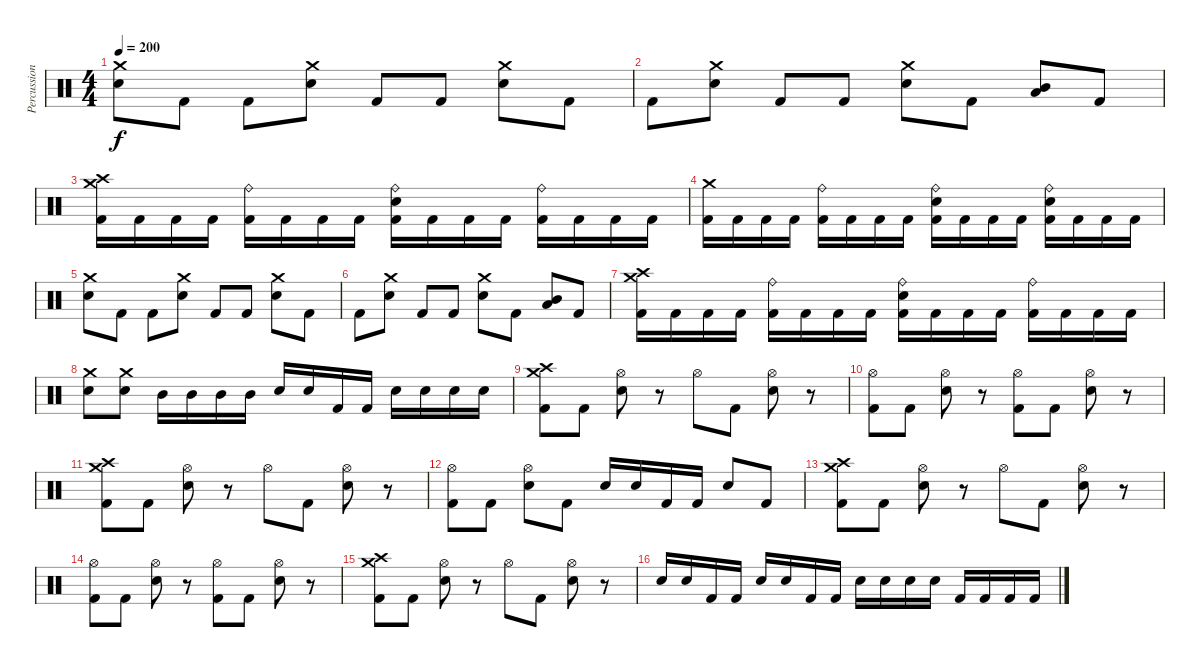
\track ("Percussion" "Percussion") {instrument percussion}
\staff {score}
\articulation defaults
\ts (4 4)
\tempo 200
\clef neutral
\ks c
("Crash medium (hit)" "Snare (hit) 2").8{dy f} "Kick (hit) 2".8 "Kick (hit) 2".8 ("Crash medium (hit)" "Snare (hit) 2").8 "Kick (hit) 2".8 "Kick (hit) 2".8 ("Crash medium (hit)" "Snare (hit) 2").8 "Kick (hit) 2".8 |
"Kick (hit) 2".8 ("Crash medium (hit)" "Snare (hit) 2").8 "Kick (hit) 2".8 "Kick (hit) 2".8 ("Crash medium (hit)" "Snare (hit) 2").8 "Kick (hit) 2".8 ("Low Tom (hit)" "Mid Tom (hit)").8 "Kick (hit) 2".8 |
("Crash high (hit)" "Crash medium (hit)" "Kick (hit) 2").16 "Kick (hit) 2".16 "Kick (hit) 2".16 "Kick (hit) 2".16 ("Ride (bell)" "Kick (hit) 2").16 "Kick (hit) 2".16 "Kick (hit) 2".16 "Kick (hit) 2".16 ("Ride (bell)" "Snare (hit) 2" "Kick (hit) 2").16 "Kick (hit) 2".16 "Kick (hit) 2".16 "Kick (hit) 2".16 ("Ride (bell)" "Kick (hit) 2").16 "Kick (hit) 2".16 "Kick (hit) 2".16 "Kick (hit) 2".16 |
("Crash medium (hit)" "Kick (hit) 2").16 "Kick (hit) 2".16 "Kick (hit) 2".16 "Kick (hit) 2".16 ("Ride (bell)" "Kick (hit) 2").16 "Kick (hit) 2".16 "Kick (hit) 2".16 "Kick (hit) 2".16 ("Ride (bell)" "Snare (hit) 2" "Kick (hit) 2").16 "Kick (hit) 2".16 "Kick (hit) 2".16 "Kick (hit) 2".16 ("Ride (bell)" "Snare (hit) 2" "Kick (hit) 2").16 "Kick (hit) 2".16 "Kick (hit) 2".16 "Kick (hit) 2".16 |
("Crash medium (hit)" "Snare (hit) 2").8 "Kick (hit) 2".8 "Kick (hit) 2".8 ("Crash medium (hit)" "Snare (hit) 2").8 "Kick (hit) 2".8 "Kick (hit) 2".8 ("Crash medium (hit)" "Snare (hit) 2").8 "Kick (hit) 2".8 |
"Kick (hit) 2".8 ("Crash medium (hit)" "Snare (hit) 2").8 "Kick (hit) 2".8 "Kick (hit) 2".8 ("Crash medium (hit)" "Snare (hit) 2").8 "Kick (hit) 2".8 ("Low Tom (hit)" "Mid Tom (hit)").8 "Kick (hit) 2".8 |
("Crash high (hit)" "Crash medium (hit)" "Kick (hit) 2").16 "Kick (hit) 2".16 "Kick (hit) 2".16 "Kick (hit) 2".16 ("Ride (bell)" "Kick (hit) 2").16 "Kick (hit) 2".16 "Kick (hit) 2".16 "Kick (hit) 2".16 ("Ride (bell)" "Snare (hit) 2" "Kick (hit) 2").16 "Kick (hit) 2".16 "Kick (hit) 2".16 "Kick (hit) 2".16 ("Ride (bell)" "Kick (hit) 2").16 "Kick (hit) 2".16 "Kick (hit) 2".16 "Kick (hit) 2".16 |
("Crash medium (hit)" "Snare (hit) 2").8 ("Crash medium (hit)" "Snare (hit) 2").8 "Mid Tom (hit)".16 "Mid Tom (hit)".16 "Mid Tom (hit)".16 "Mid Tom (hit)".16 "Snare (hit) 2".16 "Snare (hit) 2".16 "Kick (hit) 2".16 "Kick (hit) 2".16 "Snare (hit) 2".16 "Snare (hit) 2".16 "Snare (hit) 2".16 "Snare (hit) 2".16 |
("Crash high (hit)" "Crash medium (hit)" "Kick (hit) 2").8 "Kick (hit) 2".8 ("Hi-Hat (open)" "Snare (hit) 2").8 r.8 "Hi-Hat (open)".8 "Kick (hit) 2".8 ("Hi-Hat (open)" "Snare (hit) 2").8 r.8 |
("Hi-Hat (open)" "Kick (hit) 2").8 "Kick (hit) 2".8 ("Hi-Hat (open)" "Snare (hit) 2").8 r.8 ("Hi-Hat (open)" "Kick (hit) 2").8 "Kick (hit) 2".8 ("Hi-Hat (open)" "Snare (hit) 2").8 r.8 |
("Crash high (hit)" "Crash medium (hit)" "Kick (hit) 2").8 "Kick (hit) 2".8 ("Hi-Hat (open)" "Snare (hit) 2").8 r.8 "Hi-Hat (open)".8 "Kick (hit) 2".8 ("Hi-Hat (open)" "Snare (hit) 2").8 r.8 |
("Hi-Hat (open)" "Kick (hit) 2").8 "Kick (hit) 2".8 ("Hi-Hat (open)" "Snare (hit) 2").8 "Kick (hit) 2".8 "Snare (hit) 2".16 "Snare (hit) 2".16 "Kick (hit) 2".16 "Kick (hit) 2".16 "Snare (hit) 2".8 "Kick (hit) 2".8 |
("Crash high (hit)" "Crash medium (hit)" "Kick (hit) 2").8 "Kick (hit) 2".8 ("Hi-Hat (open)" "Snare (hit) 2").8 r.8 "Hi-Hat (open)".8 "Kick (hit) 2".8 ("Hi-Hat (open)" "Snare (hit) 2").8 r.8 |
("Hi-Hat (open)" "Kick (hit) 2").8 "Kick (hit) 2".8 ("Hi-Hat (open)" "Snare (hit) 2").8 r.8 ("Hi-Hat (open)" "Kick (hit) 2").8 "Kick (hit) 2".8 ("Hi-Hat (open)" "Snare (hit) 2").8 r.8 |
("Crash high (hit)" "Crash medium (hit)" "Kick (hit) 2").8 "Kick (hit) 2".8 ("Hi-Hat (open)" "Snare (hit) 2").8 r.8 "Hi-Hat (open)".8 "Kick (hit) 2".8 ("Hi-Hat (open)" "Snare (hit) 2").8 r.8 |
"Snare (hit) 2".16 "Snare (hit) 2".16 "Kick (hit) 2".16 "Kick (hit) 2".16 "Snare (hit) 2".16 "Snare (hit) 2".16 "Kick (hit) 2".16 "Kick (hit) 2".16 "Snare (hit) 2".16 "Snare (hit) 2".16 "Snare (hit) 2".16 "Snare (hit) 2".16 "Kick (hit) 2".16 "Kick (hit) 2".16 "Kick (hit) 2".16 "Kick (hit) 2".16
